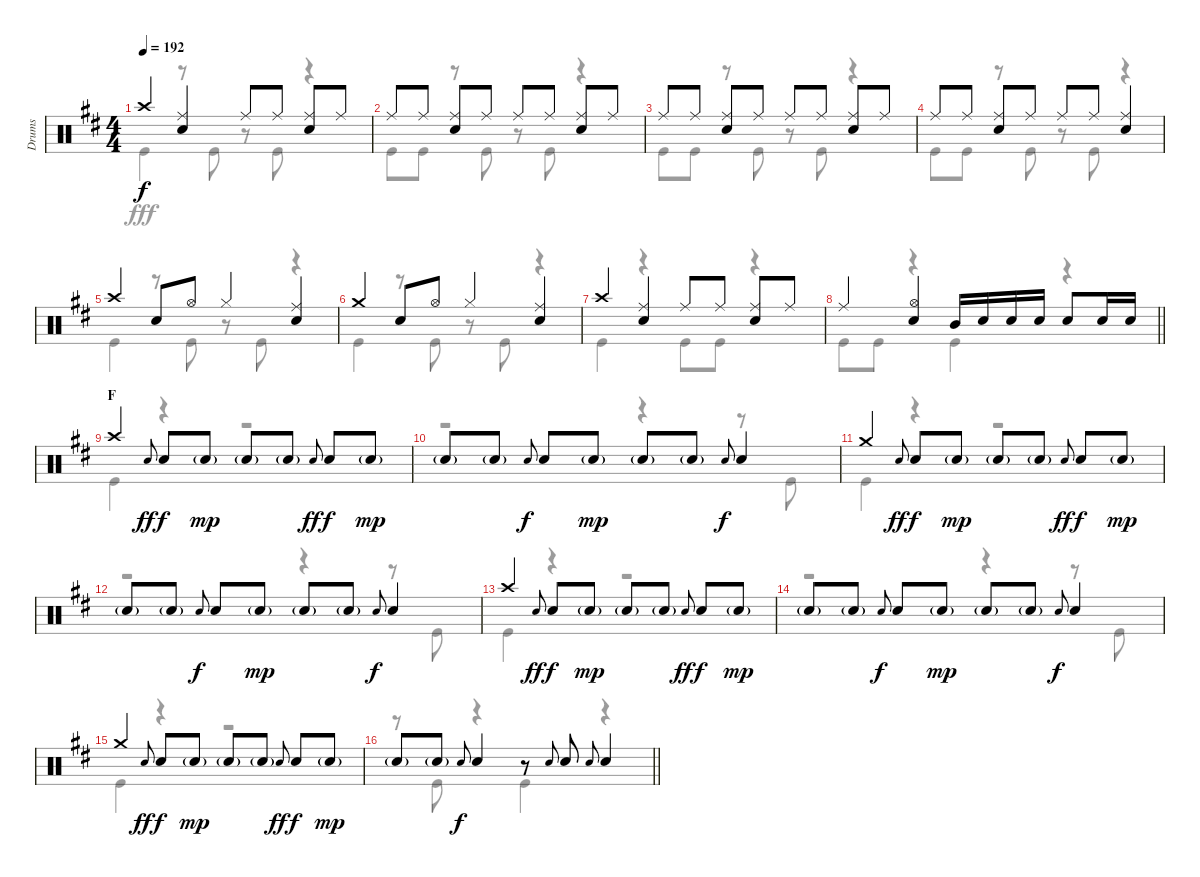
\track ("Drums" "Drums") {instrument percussion}
\staff {score}
\articulation defaults
\voice
\ts (4 4)
\tempo 192
\clef neutral
\ks d "Crash high (hit)".4{dy f}
("Ride (middle)" "Snare (hit) 2").4 "Ride (middle)".8 "Ride (middle)".8 ("Ride (middle)" "Snare (hit) 2").8 "Ride (middle)".8 |
"Ride (middle)".8 "Ride (middle)".8 ("Ride (middle)" "Snare (hit) 2").8 "Ride (middle)".8 "Ride (middle)".8 "Ride (middle)".8 ("Ride (middle)" "Snare (hit) 2").8 "Ride (middle)".8 |
"Ride (middle)".8 "Ride (middle)".8 ("Ride (middle)" "Snare (hit) 2").8 "Ride (middle)".8 "Ride (middle)".8 "Ride (middle)".8 ("Ride (middle)" "Snare (hit) 2").8 "Ride (middle)".8 |
"Ride (middle)".8 "Ride (middle)".8 ("Ride (middle)" "Snare (hit) 2").8 "Ride (middle)".8 "Ride (middle)".8 "Ride (middle)".8 ("Ride (middle)" "Snare (hit) 2").4 |
"Crash high (hit)".4 "Snare (hit) 2".8 "Hi-Hat (open)".8 "Hi-Hat (closed)".4 ("Ride (middle)" "Snare (hit) 2").4 |
"Crash medium (hit)".4 "Snare (hit) 2".8 "Hi-Hat (open)".8 "Hi-Hat (closed)".4 ("Ride (middle)" "Snare (hit) 2").4 |
"Crash high (hit)".4 ("Ride (middle)" "Snare (hit) 2").4 "Ride (middle)".8 "Ride (middle)".8 ("Ride (middle)" "Snare (hit) 2").8 "Ride (middle)".8 |
\barLineRight lightlight "Ride (middle)".4
("Hi-Hat (open)" "Snare (hit) 2").4 "Mid Tom (hit)".16 "Snare (hit) 2".16 "Snare (hit) 2".16 "Snare (hit) 2".16 "Snare (hit) 2".8 "Snare (hit) 2".16 "Snare (hit) 2".16 |
\section ("" "F")
"Crash high (hit)".4 "Snare (hit) 2".8{gr onbeat dy ff} "Snare (hit) 2".8{dy f} "Snare (hit) 2"{g}.8{dy mp} "Snare (hit) 2"{g}.8 "Snare (hit) 2"{g}.8 "Snare (hit) 2".8{gr onbeat dy ff} "Snare (hit) 2".8{dy f} "Snare (hit) 2"{g}.8{dy mp} |
"Snare (hit) 2"{g}.8 "Snare (hit) 2"{g}.8 "Snare (hit) 2".8{gr onbeat dy f} "Snare (hit) 2".8 "Snare (hit) 2"{g}.8{dy mp} "Snare (hit) 2"{g}.8 "Snare (hit) 2"{g}.8 "Snare (hit) 2".8{gr onbeat dy f} "Snare (hit) 2".4 |
"Crash medium (hit)".4 "Snare (hit) 2".8{gr onbeat dy ff} "Snare (hit) 2".8{dy f} "Snare (hit) 2"{g}.8{dy mp} "Snare (hit) 2"{g}.8 "Snare (hit) 2"{g}.8 "Snare (hit) 2".8{gr onbeat dy ff} "Snare (hit) 2".8{dy f} "Snare (hit) 2"{g}.8{dy mp} |
"Snare (hit) 2"{g}.8 "Snare (hit) 2"{g}.8 "Snare (hit) 2".8{gr onbeat dy f} "Snare (hit) 2".8 "Snare (hit) 2"{g}.8{dy mp} "Snare (hit) 2"{g}.8 "Snare (hit) 2"{g}.8 "Snare (hit) 2".8{gr onbeat dy f} "Snare (hit) 2".4 |
"Crash high (hit)".4 "Snare (hit) 2".8{gr onbeat dy ff} "Snare (hit) 2".8{dy f} "Snare (hit) 2"{g}.8{dy mp} "Snare (hit) 2"{g}.8 "Snare (hit) 2"{g}.8 "Snare (hit) 2".8{gr onbeat dy ff} "Snare (hit) 2".8{dy f} "Snare (hit) 2"{g}.8{dy mp} |
"Snare (hit) 2"{g}.8 "Snare (hit) 2"{g}.8 "Snare (hit) 2".8{gr onbeat dy f} "Snare (hit) 2".8 "Snare (hit) 2"{g}.8{dy mp} "Snare (hit) 2"{g}.8 "Snare (hit) 2"{g}.8 "Snare (hit) 2".8{gr onbeat dy f} "Snare (hit) 2".4 |
"Crash medium (hit)".4 "Snare (hit) 2".8{gr onbeat dy ff} "Snare (hit) 2".8{dy f} "Snare (hit) 2"{g}.8{dy mp} "Snare (hit) 2"{g}.8 "Snare (hit) 2"{g}.8 "Snare (hit) 2".8{gr onbeat dy ff} "Snare (hit) 2".8{dy f} "Snare (hit) 2"{g}.8{dy mp} |
\barLineRight lightlight "Snare (hit) 2"{g}.8 "Snare (hit) 2"{g}.8 "Snare (hit) 2".8{gr onbeat dy f} "Snare (hit) 2".4
r.8 "Snare (hit) 2".8{gr onbeat} "Snare (hit) 2".8 "Snare (hit) 2".8{gr onbeat} "Snare (hit) 2".4
\voice
\clef neutral
\ottava regular
\simile none
\ks d "Kick (hit)".4{dy fff}
r.8 "Kick (hit)".8 r.8 "Kick (hit)".8 r.4 |
"Kick (hit)".8 "Kick (hit)".8 r.8 "Kick (hit)".8 r.8 "Kick (hit)".8 r.4 |
"Kick (hit)".8 "Kick (hit)".8 r.8 "Kick (hit)".8 r.8 "Kick (hit)".8 r.4 |
"Kick (hit)".8 "Kick (hit)".8 r.8 "Kick (hit)".8 r.8 "Kick (hit)".8 r.4 |
"Kick (hit)".4 r.8 "Kick (hit)".8 r.8 "Kick (hit)".8 r.4 |
"Kick (hit)".4 r.8 "Kick (hit)".8 r.8 "Kick (hit)".8 r.4 |
"Kick (hit)".4 r.4 "Kick (hit)".8 "Kick (hit)".8 r.4 |
\barLineRight lightlight "Kick (hit)".8 "Kick (hit)".8
r.4 "Kick (hit)".4 r.4 |
"Kick (hit)".4 r.4 r.2 |
r.2 r.4 r.8 "Kick (hit)".8 |
"Kick (hit)".4 r.4 r.2 |
r.2 r.4 r.8 "Kick (hit)".8 |
"Kick (hit)".4 r.4 r.2 |
r.2 r.4 r.8 "Kick (hit)".8 |
"Kick (hit)".4 r.4 r.2 |
\barLineRight lightlight
r.8 "Kick (hit)".8 r.4 "Kick (hit)".4 r.4
